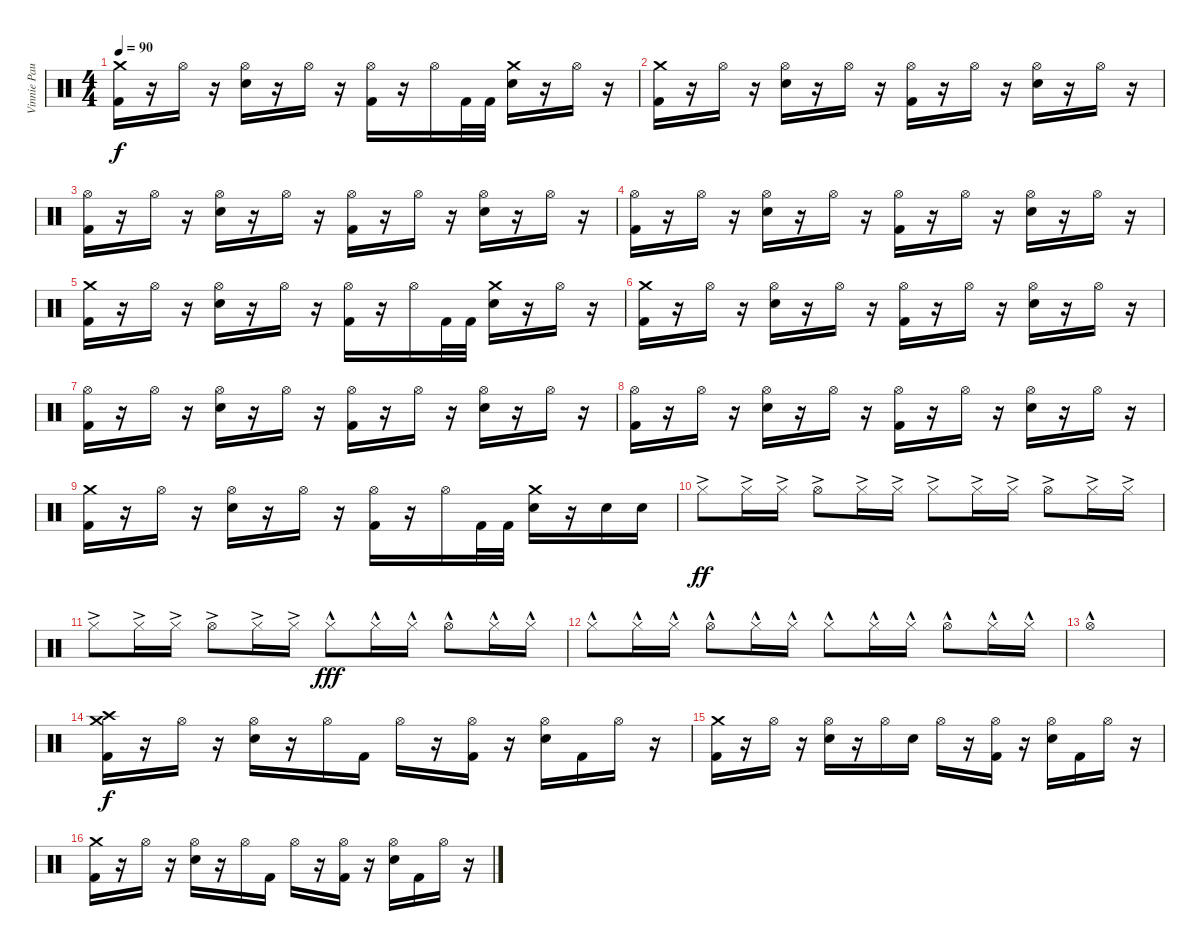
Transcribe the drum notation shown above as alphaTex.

\track ("Vinnie Paul" "Vinnie Pau") {instrument percussion}
\staff {score}
\articulation defaults
\ts (4 4)
\tempo 90
\clef neutral
\ks c
("Crash medium (hit)" "Kick (hit) 2").16{dy f} r.16 "Hi-Hat (open)".16 r.16 ("Hi-Hat (open)" "Snare (hit) 2").16 r.16 "Hi-Hat (open)".16 r.16 ("Hi-Hat (open)" "Kick (hit) 2").16 r.16 "Hi-Hat (open)".16 "Kick (hit) 2".32 "Kick (hit) 2".32 ("Crash medium (hit)" "Snare (hit) 2").16 r.16 "Hi-Hat (open)".16 r.16 |
("Crash medium (hit)" "Kick (hit) 2").16 r.16 "Hi-Hat (open)".16 r.16 ("Hi-Hat (open)" "Snare (hit) 2").16 r.16 "Hi-Hat (open)".16 r.16 ("Hi-Hat (open)" "Kick (hit) 2").16 r.16 "Hi-Hat (open)".16 r.16 ("Hi-Hat (open)" "Snare (hit) 2").16 r.16 "Hi-Hat (open)".16 r.16 |
("Hi-Hat (open)" "Kick (hit) 2").16 r.16 "Hi-Hat (open)".16 r.16 ("Hi-Hat (open)" "Snare (hit) 2").16 r.16 "Hi-Hat (open)".16 r.16 ("Hi-Hat (open)" "Kick (hit) 2").16 r.16 "Hi-Hat (open)".16 r.16 ("Hi-Hat (open)" "Snare (hit) 2").16 r.16 "Hi-Hat (open)".16 r.16 |
("Hi-Hat (open)" "Kick (hit) 2").16 r.16 "Hi-Hat (open)".16 r.16 ("Hi-Hat (open)" "Snare (hit) 2").16 r.16 "Hi-Hat (open)".16 r.16 ("Hi-Hat (open)" "Kick (hit) 2").16 r.16 "Hi-Hat (open)".16 r.16 ("Hi-Hat (open)" "Snare (hit) 2").16 r.16 "Hi-Hat (open)".16 r.16 |
("Crash medium (hit)" "Kick (hit) 2").16 r.16 "Hi-Hat (open)".16 r.16 ("Hi-Hat (open)" "Snare (hit) 2").16 r.16 "Hi-Hat (open)".16 r.16 ("Hi-Hat (open)" "Kick (hit) 2").16 r.16 "Hi-Hat (open)".16 "Kick (hit) 2".32 "Kick (hit) 2".32 ("Crash medium (hit)" "Snare (hit) 2").16 r.16 "Hi-Hat (open)".16 r.16 |
("Crash medium (hit)" "Kick (hit) 2").16 r.16 "Hi-Hat (open)".16 r.16 ("Hi-Hat (open)" "Snare (hit) 2").16 r.16 "Hi-Hat (open)".16 r.16 ("Hi-Hat (open)" "Kick (hit) 2").16 r.16 "Hi-Hat (open)".16 r.16 ("Hi-Hat (open)" "Snare (hit) 2").16 r.16 "Hi-Hat (open)".16 r.16 |
("Hi-Hat (open)" "Kick (hit) 2").16 r.16 "Hi-Hat (open)".16 r.16 ("Hi-Hat (open)" "Snare (hit) 2").16 r.16 "Hi-Hat (open)".16 r.16 ("Hi-Hat (open)" "Kick (hit) 2").16 r.16 "Hi-Hat (open)".16 r.16 ("Hi-Hat (open)" "Snare (hit) 2").16 r.16 "Hi-Hat (open)".16 r.16 |
("Hi-Hat (open)" "Kick (hit) 2").16 r.16 "Hi-Hat (open)".16 r.16 ("Hi-Hat (open)" "Snare (hit) 2").16 r.16 "Hi-Hat (open)".16 r.16 ("Hi-Hat (open)" "Kick (hit) 2").16 r.16 "Hi-Hat (open)".16 r.16 ("Hi-Hat (open)" "Snare (hit) 2").16 r.16 "Hi-Hat (open)".16 r.16 |
("Crash medium (hit)" "Kick (hit) 2").16 r.16 "Hi-Hat (open)".16 r.16 ("Hi-Hat (open)" "Snare (hit) 2").16 r.16 "Hi-Hat (open)".16 r.16 ("Hi-Hat (open)" "Kick (hit) 2").16 r.16 "Hi-Hat (open)".16 "Kick (hit) 2".32 "Kick (hit) 2".32 ("Crash medium (hit)" "Snare (hit) 2").16 r.16 "Snare (hit) 2".16 "Snare (hit) 2".16 |
"Hi-Hat (closed)"{ac}.8{dy ff} "Hi-Hat (closed)"{ac}.16 "Hi-Hat (closed)"{ac}.16 "Hi-Hat (open)"{ac}.8 "Hi-Hat (closed)"{ac}.16 "Hi-Hat (closed)"{ac}.16 "Hi-Hat (closed)"{ac}.8 "Hi-Hat (closed)"{ac}.16 "Hi-Hat (closed)"{ac}.16 "Hi-Hat (open)"{ac}.8 "Hi-Hat (closed)"{ac}.16 "Hi-Hat (closed)"{ac}.16 |
"Hi-Hat (closed)"{ac}.8 "Hi-Hat (closed)"{ac}.16 "Hi-Hat (closed)"{ac}.16 "Hi-Hat (open)"{ac}.8 "Hi-Hat (closed)"{ac}.16 "Hi-Hat (closed)"{ac}.16 "Hi-Hat (closed)"{hac}.8{dy fff} "Hi-Hat (closed)"{hac}.16 "Hi-Hat (closed)"{hac}.16 "Hi-Hat (open)"{hac}.8 "Hi-Hat (closed)"{hac}.16 "Hi-Hat (closed)"{hac}.16 |
"Hi-Hat (closed)"{hac}.8 "Hi-Hat (closed)"{hac}.16 "Hi-Hat (closed)"{hac}.16 "Hi-Hat (open)"{hac}.8 "Hi-Hat (closed)"{hac}.16 "Hi-Hat (closed)"{hac}.16 "Hi-Hat (closed)"{hac}.8 "Hi-Hat (closed)"{hac}.16 "Hi-Hat (closed)"{hac}.16 "Hi-Hat (open)"{hac}.8 "Hi-Hat (closed)"{hac}.16 "Hi-Hat (closed)"{hac}.16 |
"Hi-Hat (open)"{hac}.1 |
("Crash high (hit)" "Crash medium (hit)" "Kick (hit) 2").16{dy f} r.16 "Hi-Hat (open)".16 r.16 ("Hi-Hat (open)" "Snare (hit) 2").16 r.16 "Hi-Hat (open)".16 "Kick (hit) 2".16 "Hi-Hat (open)".16 r.16 ("Hi-Hat (open)" "Kick (hit) 2").16 r.16 ("Hi-Hat (open)" "Snare (hit) 2").16 "Kick (hit) 2".16 "Hi-Hat (open)".16 r.16 |
("Crash medium (hit)" "Kick (hit) 2").16 r.16 "Hi-Hat (open)".16 r.16 ("Hi-Hat (open)" "Snare (hit) 2").16 r.16 "Hi-Hat (open)".16 "Snare (hit) 2".16 "Hi-Hat (open)".16 r.16 ("Hi-Hat (open)" "Kick (hit) 2").16 r.16 ("Hi-Hat (open)" "Snare (hit) 2").16 "Kick (hit) 2".16 "Hi-Hat (open)".16 r.16 |
("Crash medium (hit)" "Kick (hit) 2").16 r.16 "Hi-Hat (open)".16 r.16 ("Hi-Hat (open)" "Snare (hit) 2").16 r.16 "Hi-Hat (open)".16 "Kick (hit) 2".16 "Hi-Hat (open)".16 r.16 ("Hi-Hat (open)" "Kick (hit) 2").16 r.16 ("Hi-Hat (open)" "Snare (hit) 2").16 "Kick (hit) 2".16 "Hi-Hat (open)".16 r.16
